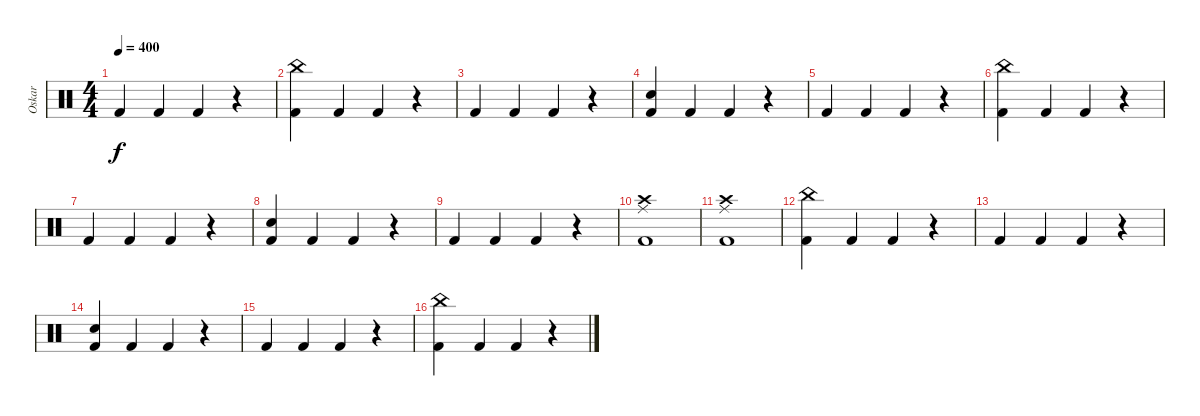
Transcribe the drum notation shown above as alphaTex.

\track ("Oskar" "Oskar") {instrument percussion}
\staff {score}
\articulation defaults
\ts (4 4)
\tempo 400
\clef neutral
\ks c "Kick (hit) 2".4{dy f} "Kick (hit) 2".4 "Kick (hit) 2".4
r.4 |
("China (hit)" "Kick (hit) 2").4 "Kick (hit) 2".4 "Kick (hit) 2".4 r.4 |
"Kick (hit) 2".4 "Kick (hit) 2".4 "Kick (hit) 2".4 r.4 |
("Electric Snare (hit)" "Kick (hit) 2").4 "Kick (hit) 2".4 "Kick (hit) 2".4 r.4 |
"Kick (hit) 2".4 "Kick (hit) 2".4 "Kick (hit) 2".4 r.4 |
("China (hit)" "Kick (hit) 2").4 "Kick (hit) 2".4 "Kick (hit) 2".4 r.4 |
"Kick (hit) 2".4 "Kick (hit) 2".4 "Kick (hit) 2".4 r.4 |
("Electric Snare (hit)" "Kick (hit) 2").4 "Kick (hit) 2".4 "Kick (hit) 2".4 r.4 |
"Kick (hit) 2".4 "Kick (hit) 2".4 "Kick (hit) 2".4 r.4 |
("Crash high (hit)" "Ride (middle)" "Kick (hit) 2").1 |
("Crash high (hit)" "Ride (middle)" "Kick (hit) 2").1 |
("China (hit)" "Kick (hit) 2").4 "Kick (hit) 2".4 "Kick (hit) 2".4 r.4 |
"Kick (hit) 2".4 "Kick (hit) 2".4 "Kick (hit) 2".4 r.4 |
("Electric Snare (hit)" "Kick (hit) 2").4 "Kick (hit) 2".4 "Kick (hit) 2".4 r.4 |
"Kick (hit) 2".4 "Kick (hit) 2".4 "Kick (hit) 2".4 r.4 |
("China (hit)" "Kick (hit) 2").4 "Kick (hit) 2".4 "Kick (hit) 2".4 r.4
